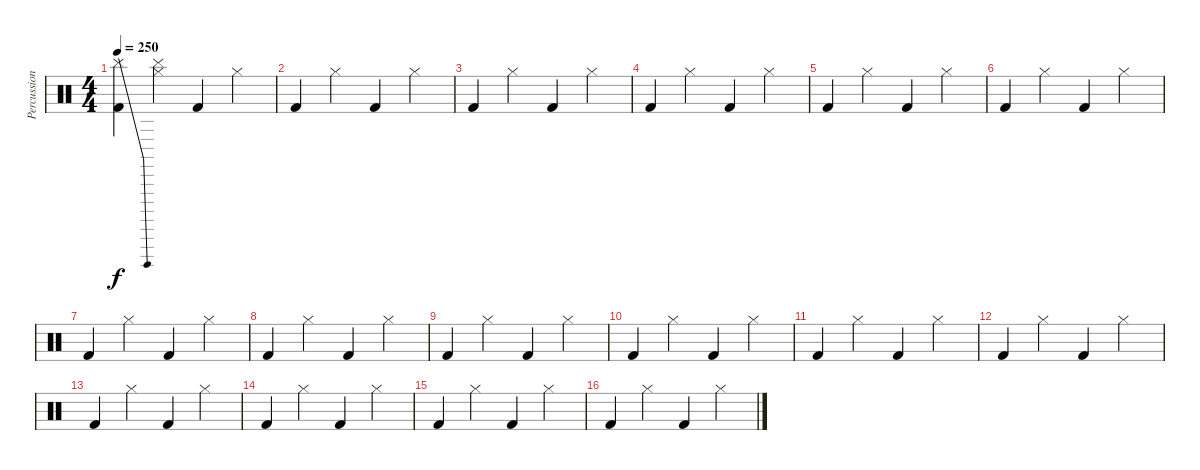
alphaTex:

\track ("Percussion" "Percussion") {instrument percussion}
\staff {score}
\articulation defaults
\ts (4 4)
\tempo 250
\clef neutral
\ks c
("Kick (hit) 2" "Cymbal (hit)"{be (bend 0 0 60 8)}).4{dy f} ("Hi-Hat (closed)" "Cymbal (hit)").4 "Kick (hit) 2".4 "Hi-Hat (closed)".4 |
"Kick (hit) 2".4 "Hi-Hat (closed)".4 "Kick (hit) 2".4 "Hi-Hat (closed)".4 |
"Kick (hit) 2".4 "Hi-Hat (closed)".4 "Kick (hit) 2".4 "Hi-Hat (closed)".4 |
"Kick (hit) 2".4 "Hi-Hat (closed)".4 "Kick (hit) 2".4 "Hi-Hat (closed)".4 |
"Kick (hit) 2".4 "Hi-Hat (closed)".4 "Kick (hit) 2".4 "Hi-Hat (closed)".4 |
"Kick (hit) 2".4 "Hi-Hat (closed)".4 "Kick (hit) 2".4 "Hi-Hat (closed)".4 |
"Kick (hit) 2".4 "Hi-Hat (closed)".4 "Kick (hit) 2".4 "Hi-Hat (closed)".4 |
"Kick (hit) 2".4 "Hi-Hat (closed)".4 "Kick (hit) 2".4 "Hi-Hat (closed)".4 |
"Kick (hit) 2".4 "Hi-Hat (closed)".4 "Kick (hit) 2".4 "Hi-Hat (closed)".4 |
"Kick (hit) 2".4 "Hi-Hat (closed)".4 "Kick (hit) 2".4 "Hi-Hat (closed)".4 |
"Kick (hit) 2".4 "Hi-Hat (closed)".4 "Kick (hit) 2".4 "Hi-Hat (closed)".4 |
"Kick (hit) 2".4 "Hi-Hat (closed)".4 "Kick (hit) 2".4 "Hi-Hat (closed)".4 |
"Kick (hit) 2".4 "Hi-Hat (closed)".4 "Kick (hit) 2".4 "Hi-Hat (closed)".4 |
"Kick (hit) 2".4 "Hi-Hat (closed)".4 "Kick (hit) 2".4 "Hi-Hat (closed)".4 |
"Kick (hit) 2".4 "Hi-Hat (closed)".4 "Kick (hit) 2".4 "Hi-Hat (closed)".4 |
"Kick (hit) 2".4 "Hi-Hat (closed)".4 "Kick (hit) 2".4 "Hi-Hat (closed)".4
